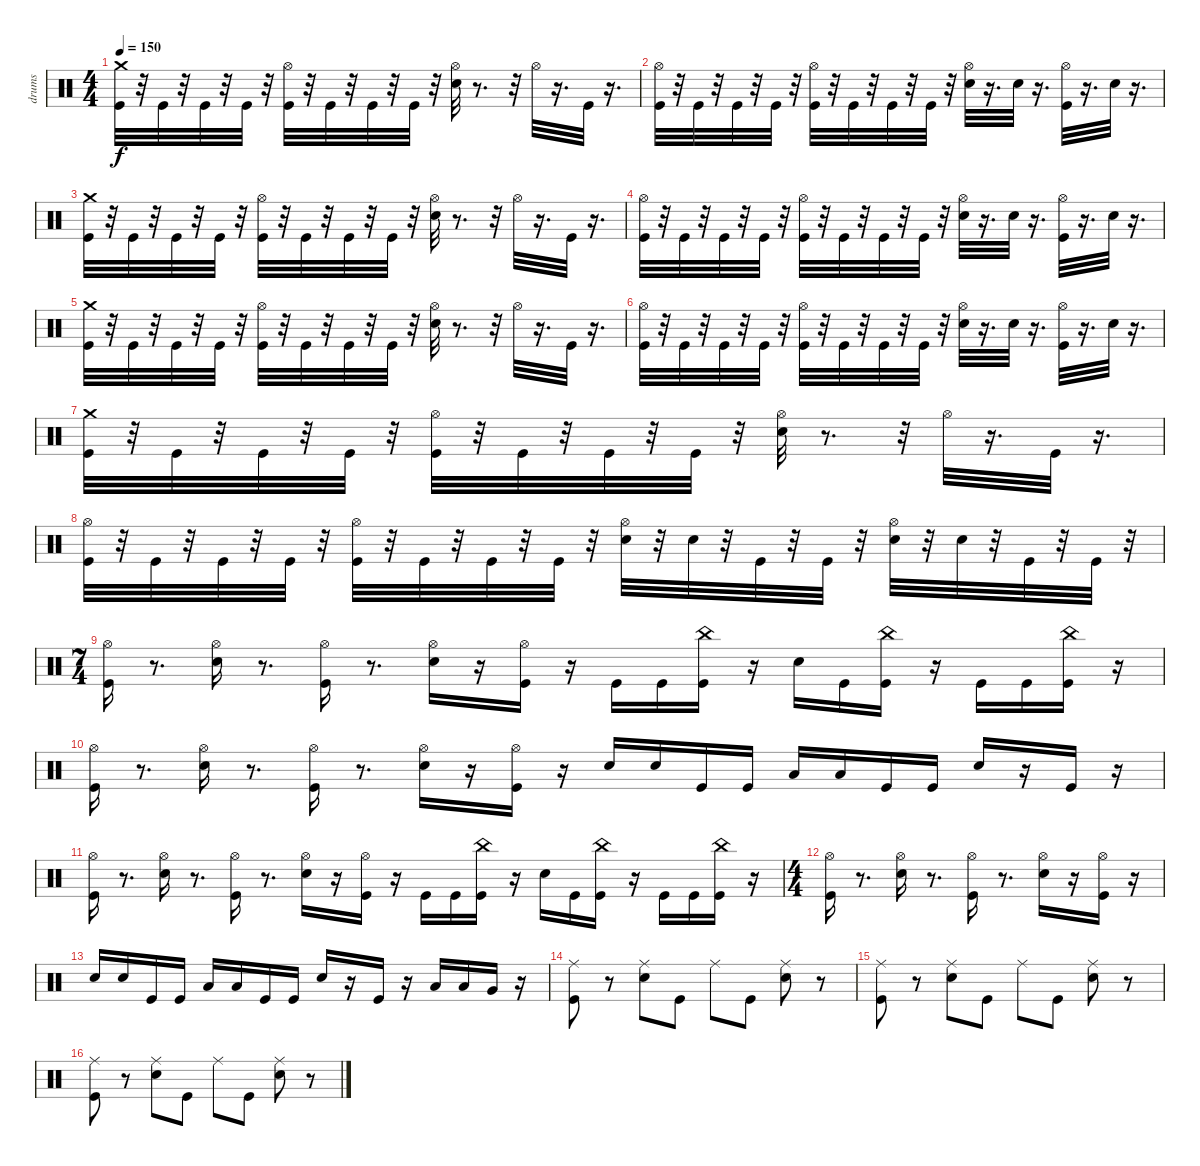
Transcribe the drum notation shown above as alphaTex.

\track ("drums" "drums") {instrument percussion}
\staff {score}
\articulation defaults
\ts (4 4)
\tempo 150
\clef neutral
\ks c
("Crash medium (hit)" "Kick (hit)").32{dy f} r.32 "Kick (hit)".32 r.32 "Kick (hit)".32 r.32 "Kick (hit)".32 r.32 ("Hi-Hat (open)" "Kick (hit)").32 r.32 "Kick (hit)".32 r.32 "Kick (hit)".32 r.32 "Kick (hit)".32 r.32 ("Hi-Hat (open)" "Electric Snare (hit)").32 r.8{d} r.32 "Hi-Hat (open)".32 r.16{d} "Kick (hit)".32 r.16{d} |
("Hi-Hat (open)" "Kick (hit)").32 r.32 "Kick (hit)".32 r.32 "Kick (hit)".32 r.32 "Kick (hit)".32 r.32 ("Hi-Hat (open)" "Kick (hit)").32 r.32 "Kick (hit)".32 r.32 "Kick (hit)".32 r.32 "Kick (hit)".32 r.32 ("Hi-Hat (open)" "Electric Snare (hit)").32 r.16{d} "Electric Snare (hit)".32 r.16{d} ("Kick (hit)" "Hi-Hat (open)").32 r.16{d} "Electric Snare (hit)".32 r.16{d} |
("Crash medium (hit)" "Kick (hit)").32 r.32 "Kick (hit)".32 r.32 "Kick (hit)".32 r.32 "Kick (hit)".32 r.32 ("Hi-Hat (open)" "Kick (hit)").32 r.32 "Kick (hit)".32 r.32 "Kick (hit)".32 r.32 "Kick (hit)".32 r.32 ("Hi-Hat (open)" "Electric Snare (hit)").32 r.8{d} r.32 "Hi-Hat (open)".32 r.16{d} "Kick (hit)".32 r.16{d} |
("Hi-Hat (open)" "Kick (hit)").32 r.32 "Kick (hit)".32 r.32 "Kick (hit)".32 r.32 "Kick (hit)".32 r.32 ("Hi-Hat (open)" "Kick (hit)").32 r.32 "Kick (hit)".32 r.32 "Kick (hit)".32 r.32 "Kick (hit)".32 r.32 ("Hi-Hat (open)" "Electric Snare (hit)").32 r.16{d} "Electric Snare (hit)".32 r.16{d} ("Kick (hit)" "Hi-Hat (open)").32 r.16{d} "Electric Snare (hit)".32 r.16{d} |
("Crash medium (hit)" "Kick (hit)").32 r.32 "Kick (hit)".32 r.32 "Kick (hit)".32 r.32 "Kick (hit)".32 r.32 ("Hi-Hat (open)" "Kick (hit)").32 r.32 "Kick (hit)".32 r.32 "Kick (hit)".32 r.32 "Kick (hit)".32 r.32 ("Hi-Hat (open)" "Electric Snare (hit)").32 r.8{d} r.32 "Hi-Hat (open)".32 r.16{d} "Kick (hit)".32 r.16{d} |
("Hi-Hat (open)" "Kick (hit)").32 r.32 "Kick (hit)".32 r.32 "Kick (hit)".32 r.32 "Kick (hit)".32 r.32 ("Hi-Hat (open)" "Kick (hit)").32 r.32 "Kick (hit)".32 r.32 "Kick (hit)".32 r.32 "Kick (hit)".32 r.32 ("Hi-Hat (open)" "Electric Snare (hit)").32 r.16{d} "Electric Snare (hit)".32 r.16{d} ("Kick (hit)" "Hi-Hat (open)").32 r.16{d} "Electric Snare (hit)".32 r.16{d} |
("Crash medium (hit)" "Kick (hit)").32 r.32 "Kick (hit)".32 r.32 "Kick (hit)".32 r.32 "Kick (hit)".32 r.32 ("Hi-Hat (open)" "Kick (hit)").32 r.32 "Kick (hit)".32 r.32 "Kick (hit)".32 r.32 "Kick (hit)".32 r.32 ("Hi-Hat (open)" "Electric Snare (hit)").32 r.8{d} r.32 "Hi-Hat (open)".32 r.16{d} "Kick (hit)".32 r.16{d} |
("Hi-Hat (open)" "Kick (hit)").32 r.32 "Kick (hit)".32 r.32 "Kick (hit)".32 r.32 "Kick (hit)".32 r.32 ("Hi-Hat (open)" "Kick (hit)").32 r.32 "Kick (hit)".32 r.32 "Kick (hit)".32 r.32 "Kick (hit)".32 r.32 ("Hi-Hat (open)" "Electric Snare (hit)").32 r.32 "Electric Snare (hit)".32 r.32 "Kick (hit)".32 r.32 "Kick (hit)".32 r.32 ("Electric Snare (hit)" "Hi-Hat (open)").32 r.32 "Electric Snare (hit)".32 r.32 "Kick (hit)".32 r.32 "Kick (hit)".32 r.32 |
\ts (7 4)
("Hi-Hat (open)" "Kick (hit)").16 r.8{d} ("Hi-Hat (open)" "Electric Snare (hit)").16 r.8{d} ("Hi-Hat (open)" "Kick (hit)").16 r.8{d} ("Hi-Hat (open)" "Electric Snare (hit)").16 r.16 ("Hi-Hat (open)" "Kick (hit)").16 r.16 "Kick (hit)".16 "Kick (hit)".16 ("China (hit)" "Kick (hit)").16 r.16 "Electric Snare (hit)".16 "Kick (hit)".16 ("China (hit)" "Kick (hit)").16 r.16 "Kick (hit)".16 "Kick (hit)".16 ("China (hit)" "Kick (hit)").16 r.16 |
("Hi-Hat (open)" "Kick (hit)").16 r.8{d} ("Hi-Hat (open)" "Electric Snare (hit)").16 r.8{d} ("Hi-Hat (open)" "Kick (hit)").16 r.8{d} ("Hi-Hat (open)" "Electric Snare (hit)").16 r.16 ("Hi-Hat (open)" "Kick (hit)").16 r.16 "Electric Snare (hit)".16 "Electric Snare (hit)".16 "Kick (hit)".16 "Kick (hit)".16 "Low Tom (hit)".16 "Low Tom (hit)".16 "Kick (hit)".16 "Kick (hit)".16 "Electric Snare (hit)".16 r.16 "Kick (hit)".16 r.16 |
("Hi-Hat (open)" "Kick (hit)").16 r.8{d} ("Hi-Hat (open)" "Electric Snare (hit)").16 r.8{d} ("Hi-Hat (open)" "Kick (hit)").16 r.8{d} ("Hi-Hat (open)" "Electric Snare (hit)").16 r.16 ("Hi-Hat (open)" "Kick (hit)").16 r.16 "Kick (hit)".16 "Kick (hit)".16 ("China (hit)" "Kick (hit)").16 r.16 "Electric Snare (hit)".16 "Kick (hit)".16 ("China (hit)" "Kick (hit)").16 r.16 "Kick (hit)".16 "Kick (hit)".16 ("China (hit)" "Kick (hit)").16 r.16 |
\ts (4 4)
("Hi-Hat (open)" "Kick (hit)").16 r.8{d} ("Hi-Hat (open)" "Electric Snare (hit)").16 r.8{d} ("Hi-Hat (open)" "Kick (hit)").16 r.8{d} ("Hi-Hat (open)" "Electric Snare (hit)").16 r.16 ("Hi-Hat (open)" "Kick (hit)").16 r.16 |
"Electric Snare (hit)".16 "Electric Snare (hit)".16 "Kick (hit)".16 "Kick (hit)".16 "Low Tom (hit)".16 "Low Tom (hit)".16 "Kick (hit)".16 "Kick (hit)".16 "Electric Snare (hit)".16 r.16 "Kick (hit)".16 r.16 "Low Tom (hit)".16 "Low Tom (hit)".16 "Very Low Tom (hit)".16 r.16 |
("Ride (middle)" "Kick (hit)").8 r.8 ("Ride (middle)" "Electric Snare (hit)").8 "Kick (hit)".8 "Ride (middle)".8 "Kick (hit)".8 ("Ride (middle)" "Electric Snare (hit)").8 r.8 |
("Ride (middle)" "Kick (hit)").8 r.8 ("Ride (middle)" "Electric Snare (hit)").8 "Kick (hit)".8 "Ride (middle)".8 "Kick (hit)".8 ("Ride (middle)" "Electric Snare (hit)").8 r.8 |
("Ride (middle)" "Kick (hit)").8 r.8 ("Ride (middle)" "Electric Snare (hit)").8 "Kick (hit)".8 "Ride (middle)".8 "Kick (hit)".8 ("Ride (middle)" "Electric Snare (hit)").8 r.8
